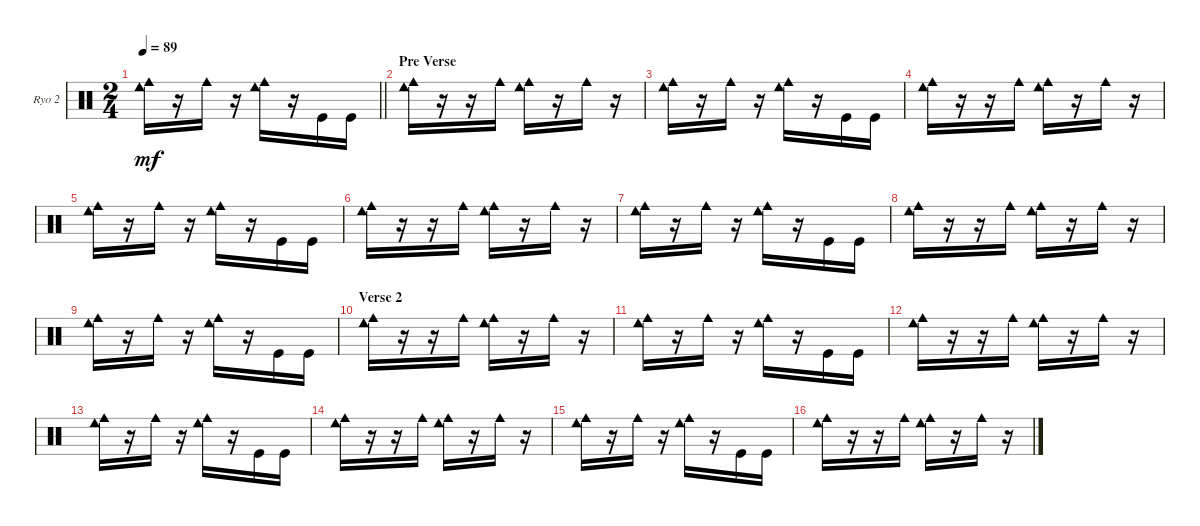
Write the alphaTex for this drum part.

\bracketExtendMode groupsimilarinstruments
\firstSystemTrackNameOrientation horizontal
\otherSystemsTrackNameOrientation horizontal
\track ("Ryo2 [Additional Drums]" "Ryo 2") {instrument percussion}
\staff {score}
\articulation defaults
\ts (2 4)
\tempo 89
\clef neutral
\scale
0.333333
\barLineRight lightlight
\ks c
("Cowbell low (hit)" "Cowbell medium (hit)").16{dy mf} r.16 "Cowbell medium (hit)".16 r.16 ("Cowbell medium (hit)" "Cowbell low (hit)").16 r.16 "Kick (hit)".16 "Kick (hit)".16 |
\section ("" "Pre Verse")
\scale
0.377778 ("Cowbell low (hit)" "Cowbell medium (hit)").16 r.16 r.16 "Cowbell medium (hit)".16 ("Cowbell medium (hit)" "Cowbell low (hit)").16 r.16 "Cowbell medium (hit)".16 r.16 |
("Cowbell low (hit)" "Cowbell medium (hit)").16 r.16 "Cowbell medium (hit)".16 r.16 ("Cowbell medium (hit)" "Cowbell low (hit)").16 r.16 "Kick (hit)".16 "Kick (hit)".16 |
("Cowbell low (hit)" "Cowbell medium (hit)").16 r.16 r.16 "Cowbell medium (hit)".16 ("Cowbell medium (hit)" "Cowbell low (hit)").16 r.16 "Cowbell medium (hit)".16 r.16 |
("Cowbell low (hit)" "Cowbell medium (hit)").16 r.16 "Cowbell medium (hit)".16 r.16 ("Cowbell medium (hit)" "Cowbell low (hit)").16 r.16 "Kick (hit)".16 "Kick (hit)".16 |
("Cowbell low (hit)" "Cowbell medium (hit)").16 r.16 r.16 "Cowbell medium (hit)".16 ("Cowbell medium (hit)" "Cowbell low (hit)").16 r.16 "Cowbell medium (hit)".16 r.16 |
\scale
0.311111 ("Cowbell low (hit)" "Cowbell medium (hit)").16 r.16 "Cowbell medium (hit)".16 r.16 ("Cowbell medium (hit)" "Cowbell low (hit)").16 r.16 "Kick (hit)".16 "Kick (hit)".16 |
\scale
0.311111 ("Cowbell low (hit)" "Cowbell medium (hit)").16 r.16 r.16 "Cowbell medium (hit)".16 ("Cowbell medium (hit)" "Cowbell low (hit)").16 r.16 "Cowbell medium (hit)".16 r.16 |
\scale
0.333333 ("Cowbell low (hit)" "Cowbell medium (hit)").16 r.16 "Cowbell medium (hit)".16 r.16 ("Cowbell medium (hit)" "Cowbell low (hit)").16 r.16 "Kick (hit)".16 "Kick (hit)".16 |
\section ("" "Verse 2")
("Cowbell low (hit)" "Cowbell medium (hit)").16 r.16 r.16 "Cowbell medium (hit)".16 ("Cowbell medium (hit)" "Cowbell low (hit)").16 r.16 "Cowbell medium (hit)".16 r.16 |
("Cowbell low (hit)" "Cowbell medium (hit)").16 r.16 "Cowbell medium (hit)".16 r.16 ("Cowbell medium (hit)" "Cowbell low (hit)").16 r.16 "Kick (hit)".16 "Kick (hit)".16 |
("Cowbell low (hit)" "Cowbell medium (hit)").16 r.16 r.16 "Cowbell medium (hit)".16 ("Cowbell medium (hit)" "Cowbell low (hit)").16 r.16 "Cowbell medium (hit)".16 r.16 |
("Cowbell low (hit)" "Cowbell medium (hit)").16 r.16 "Cowbell medium (hit)".16 r.16 ("Cowbell medium (hit)" "Cowbell low (hit)").16 r.16 "Kick (hit)".16 "Kick (hit)".16 |
("Cowbell low (hit)" "Cowbell medium (hit)").16 r.16 r.16 "Cowbell medium (hit)".16 ("Cowbell medium (hit)" "Cowbell low (hit)").16 r.16 "Cowbell medium (hit)".16 r.16 |
("Cowbell low (hit)" "Cowbell medium (hit)").16 r.16 "Cowbell medium (hit)".16 r.16 ("Cowbell medium (hit)" "Cowbell low (hit)").16 r.16 "Kick (hit)".16 "Kick (hit)".16 |
("Cowbell low (hit)" "Cowbell medium (hit)").16 r.16 r.16 "Cowbell medium (hit)".16 ("Cowbell medium (hit)" "Cowbell low (hit)").16 r.16 "Cowbell medium (hit)".16 r.16
